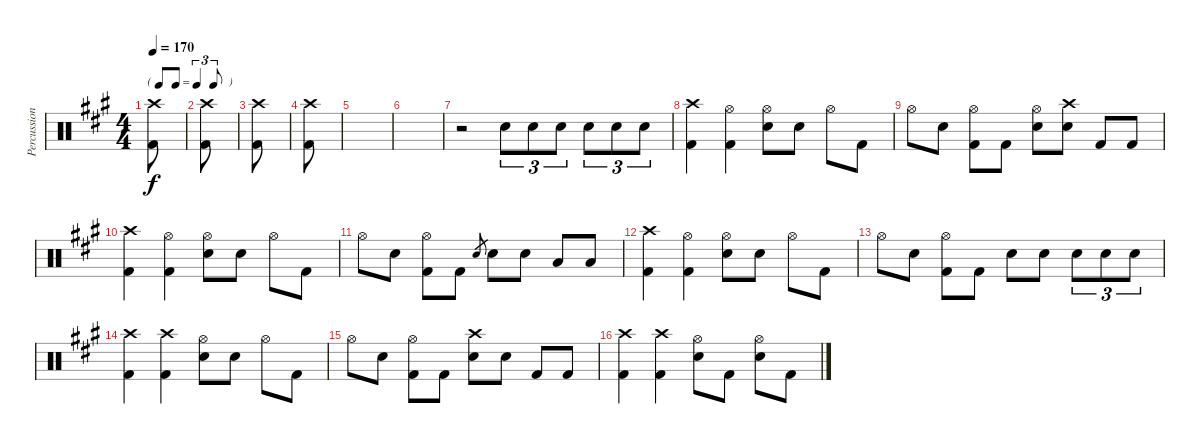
\track ("Percussion" "Percussion") {instrument percussion}
\staff {score}
\articulation defaults
\ts (4 4)
\tf triplet8th
\tempo 170
\clef neutral
\ks a
("Crash high (hit)" "Kick (hit) 2").8{dy f} |
("Crash high (hit)" "Kick (hit) 2").8 |
("Crash high (hit)" "Kick (hit) 2").8 |
("Crash high (hit)" "Kick (hit) 2").8 |
|
|
r.2 "Electric Snare (hit)".8{tu (3 2)} "Electric Snare (hit)".8{tu (3 2)} "Electric Snare (hit)".8{tu (3 2)} "Electric Snare (hit)".8{tu (3 2)} "Electric Snare (hit)".8{tu (3 2)} "Electric Snare (hit)".8{tu (3 2)} |
("Crash high (hit)" "Kick (hit) 2").4 ("Hi-Hat (open)" "Kick (hit) 2").4 ("Hi-Hat (open)" "Electric Snare (hit)").8 "Electric Snare (hit)".8 "Hi-Hat (open)".8 "Kick (hit) 2".8 |
"Hi-Hat (open)".8 "Electric Snare (hit)".8 ("Hi-Hat (open)" "Kick (hit) 2").8 "Kick (hit) 2".8 ("Hi-Hat (open)" "Electric Snare (hit)").8 ("Crash high (hit)" "Electric Snare (hit)").8 "Kick (hit) 2".8 "Kick (hit) 2".8 |
("Crash high (hit)" "Kick (hit) 2").4 ("Hi-Hat (open)" "Kick (hit) 2").4 ("Hi-Hat (open)" "Electric Snare (hit)").8 "Electric Snare (hit)".8 "Hi-Hat (open)".8 "Kick (hit) 2".8 |
"Hi-Hat (open)".8 "Electric Snare (hit)".8 ("Hi-Hat (open)" "Kick (hit) 2").8 "Kick (hit) 2".8 "Electric Snare (hit)".8{gr} "Electric Snare (hit)".8 "Electric Snare (hit)".8 "Low Tom (hit)".8 "Low Tom (hit)".8 |
("Crash high (hit)" "Kick (hit) 2").4 ("Hi-Hat (open)" "Kick (hit) 2").4 ("Hi-Hat (open)" "Electric Snare (hit)").8 "Electric Snare (hit)".8 "Hi-Hat (open)".8 "Kick (hit) 2".8 |
"Hi-Hat (open)".8 "Electric Snare (hit)".8 ("Hi-Hat (open)" "Kick (hit) 2").8 "Kick (hit) 2".8 "Electric Snare (hit)".8 "Electric Snare (hit)".8 "Electric Snare (hit)".8{tu (3 2)} "Electric Snare (hit)".8{tu (3 2)} "Electric Snare (hit)".8{tu (3 2)} |
("Crash high (hit)" "Kick (hit) 2").4 ("Crash high (hit)" "Kick (hit) 2").4 ("Hi-Hat (open)" "Electric Snare (hit)").8 "Electric Snare (hit)".8 "Hi-Hat (open)".8 "Kick (hit) 2".8 |
"Hi-Hat (open)".8 "Electric Snare (hit)".8 ("Hi-Hat (open)" "Kick (hit) 2").8 "Kick (hit) 2".8 ("Crash high (hit)" "Electric Snare (hit)").8 "Electric Snare (hit)".8 "Kick (hit) 2".8 "Kick (hit) 2".8 |
("Crash high (hit)" "Kick (hit) 2").4 ("Crash high (hit)" "Kick (hit) 2").4 ("Hi-Hat (open)" "Electric Snare (hit)").8 "Kick (hit) 2".8 ("Hi-Hat (open)" "Electric Snare (hit)").8 "Kick (hit) 2".8
